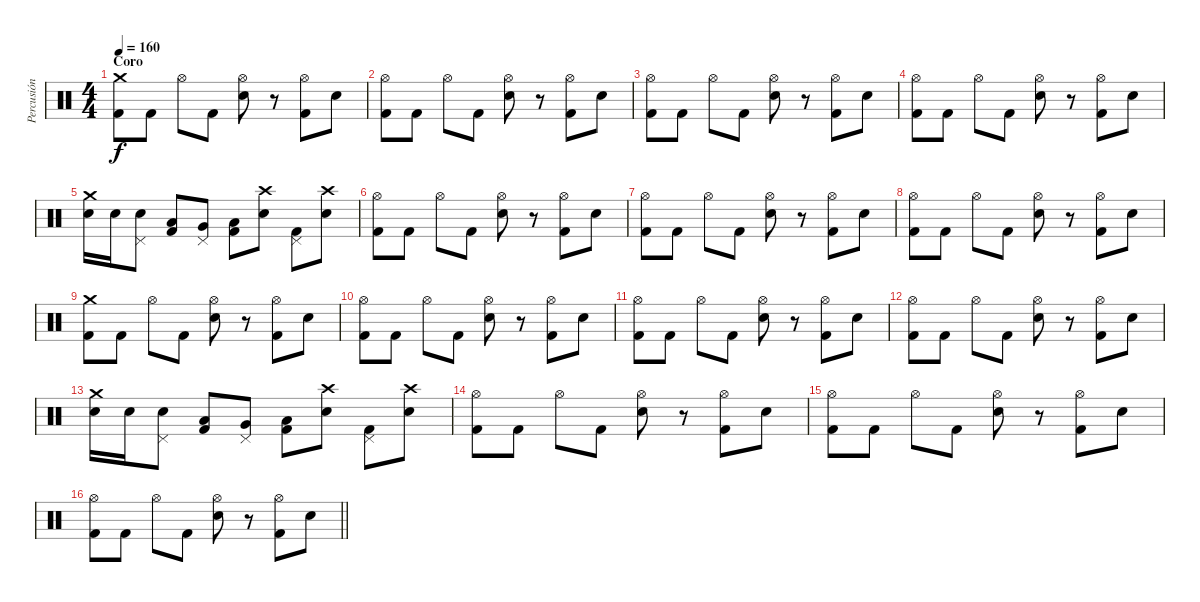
\track ("Percusión" "Percusión") {instrument percussion}
\staff {score}
\articulation defaults
\ts (4 4)
\section ("" "Coro")
\tempo 160
\clef neutral
\ks c
("Crash medium (hit)" "Kick (hit) 2").8{dy f} "Kick (hit) 2".8 "Hi-Hat (open)".8 "Kick (hit) 2".8 ("Hi-Hat (open)" "Snare (hit) 2").8 r.8 ("Hi-Hat (open)" "Kick (hit) 2").8 "Snare (hit) 2".8 |
("Hi-Hat (open)" "Kick (hit) 2").8 "Kick (hit) 2".8 "Hi-Hat (open)".8 "Kick (hit) 2".8 ("Hi-Hat (open)" "Snare (hit) 2").8 r.8 ("Hi-Hat (open)" "Kick (hit) 2").8 "Snare (hit) 2".8 |
("Hi-Hat (open)" "Kick (hit) 2").8 "Kick (hit) 2".8 "Hi-Hat (open)".8 "Kick (hit) 2".8 ("Hi-Hat (open)" "Snare (hit) 2").8 r.8 ("Hi-Hat (open)" "Kick (hit) 2").8 "Snare (hit) 2".8 |
("Hi-Hat (open)" "Kick (hit) 2").8 "Kick (hit) 2".8 "Hi-Hat (open)".8 "Kick (hit) 2".8 ("Hi-Hat (open)" "Snare (hit) 2").8 r.8 ("Hi-Hat (open)" "Kick (hit) 2").8 "Snare (hit) 2".8 |
("Crash medium (hit)" "Snare (hit) 2").16 "Snare (hit) 2".16 ("Pedal Hi-Hat (hit)" "Snare (hit) 2").8 ("Low Tom (hit)" "Kick (hit) 2").8 ("Pedal Hi-Hat (hit)" "Very Low Tom (hit)").8 ("Low Floor Tom (hit)" "Kick (hit) 2").8 ("Crash high (hit)" "Snare (hit) 2").8 ("Pedal Hi-Hat (hit)" "Kick (hit) 2").8 ("Crash high (hit)" "Snare (hit) 2").8 |
("Hi-Hat (open)" "Kick (hit) 2").8 "Kick (hit) 2".8 "Hi-Hat (open)".8 "Kick (hit) 2".8 ("Hi-Hat (open)" "Snare (hit) 2").8 r.8 ("Hi-Hat (open)" "Kick (hit) 2").8 "Snare (hit) 2".8 |
("Hi-Hat (open)" "Kick (hit) 2").8 "Kick (hit) 2".8 "Hi-Hat (open)".8 "Kick (hit) 2".8 ("Hi-Hat (open)" "Snare (hit) 2").8 r.8 ("Hi-Hat (open)" "Kick (hit) 2").8 "Snare (hit) 2".8 |
("Hi-Hat (open)" "Kick (hit) 2").8 "Kick (hit) 2".8 "Hi-Hat (open)".8 "Kick (hit) 2".8 ("Hi-Hat (open)" "Snare (hit) 2").8 r.8 ("Hi-Hat (open)" "Kick (hit) 2").8 "Snare (hit) 2".8 |
("Crash medium (hit)" "Kick (hit) 2").8 "Kick (hit) 2".8 "Hi-Hat (open)".8 "Kick (hit) 2".8 ("Hi-Hat (open)" "Snare (hit) 2").8 r.8 ("Hi-Hat (open)" "Kick (hit) 2").8 "Snare (hit) 2".8 |
("Hi-Hat (open)" "Kick (hit) 2").8 "Kick (hit) 2".8 "Hi-Hat (open)".8 "Kick (hit) 2".8 ("Hi-Hat (open)" "Snare (hit) 2").8 r.8 ("Hi-Hat (open)" "Kick (hit) 2").8 "Snare (hit) 2".8 |
("Hi-Hat (open)" "Kick (hit) 2").8 "Kick (hit) 2".8 "Hi-Hat (open)".8 "Kick (hit) 2".8 ("Hi-Hat (open)" "Snare (hit) 2").8 r.8 ("Hi-Hat (open)" "Kick (hit) 2").8 "Snare (hit) 2".8 |
("Hi-Hat (open)" "Kick (hit) 2").8 "Kick (hit) 2".8 "Hi-Hat (open)".8 "Kick (hit) 2".8 ("Hi-Hat (open)" "Snare (hit) 2").8 r.8 ("Hi-Hat (open)" "Kick (hit) 2").8 "Snare (hit) 2".8 |
("Crash medium (hit)" "Snare (hit) 2").16 "Snare (hit) 2".16 ("Pedal Hi-Hat (hit)" "Snare (hit) 2").8 ("Low Tom (hit)" "Kick (hit) 2").8 ("Pedal Hi-Hat (hit)" "Very Low Tom (hit)").8 ("Low Floor Tom (hit)" "Kick (hit) 2").8 ("Crash high (hit)" "Snare (hit) 2").8 ("Pedal Hi-Hat (hit)" "Kick (hit) 2").8 ("Crash high (hit)" "Snare (hit) 2").8 |
("Hi-Hat (open)" "Kick (hit) 2").8 "Kick (hit) 2".8 "Hi-Hat (open)".8 "Kick (hit) 2".8 ("Hi-Hat (open)" "Snare (hit) 2").8 r.8 ("Hi-Hat (open)" "Kick (hit) 2").8 "Snare (hit) 2".8 |
("Hi-Hat (open)" "Kick (hit) 2").8 "Kick (hit) 2".8 "Hi-Hat (open)".8 "Kick (hit) 2".8 ("Hi-Hat (open)" "Snare (hit) 2").8 r.8 ("Hi-Hat (open)" "Kick (hit) 2").8 "Snare (hit) 2".8 |
\barLineRight lightlight
("Hi-Hat (open)" "Kick (hit) 2").8 "Kick (hit) 2".8 "Hi-Hat (open)".8 "Kick (hit) 2".8 ("Hi-Hat (open)" "Snare (hit) 2").8 r.8 ("Hi-Hat (open)" "Kick (hit) 2").8 "Snare (hit) 2".8
